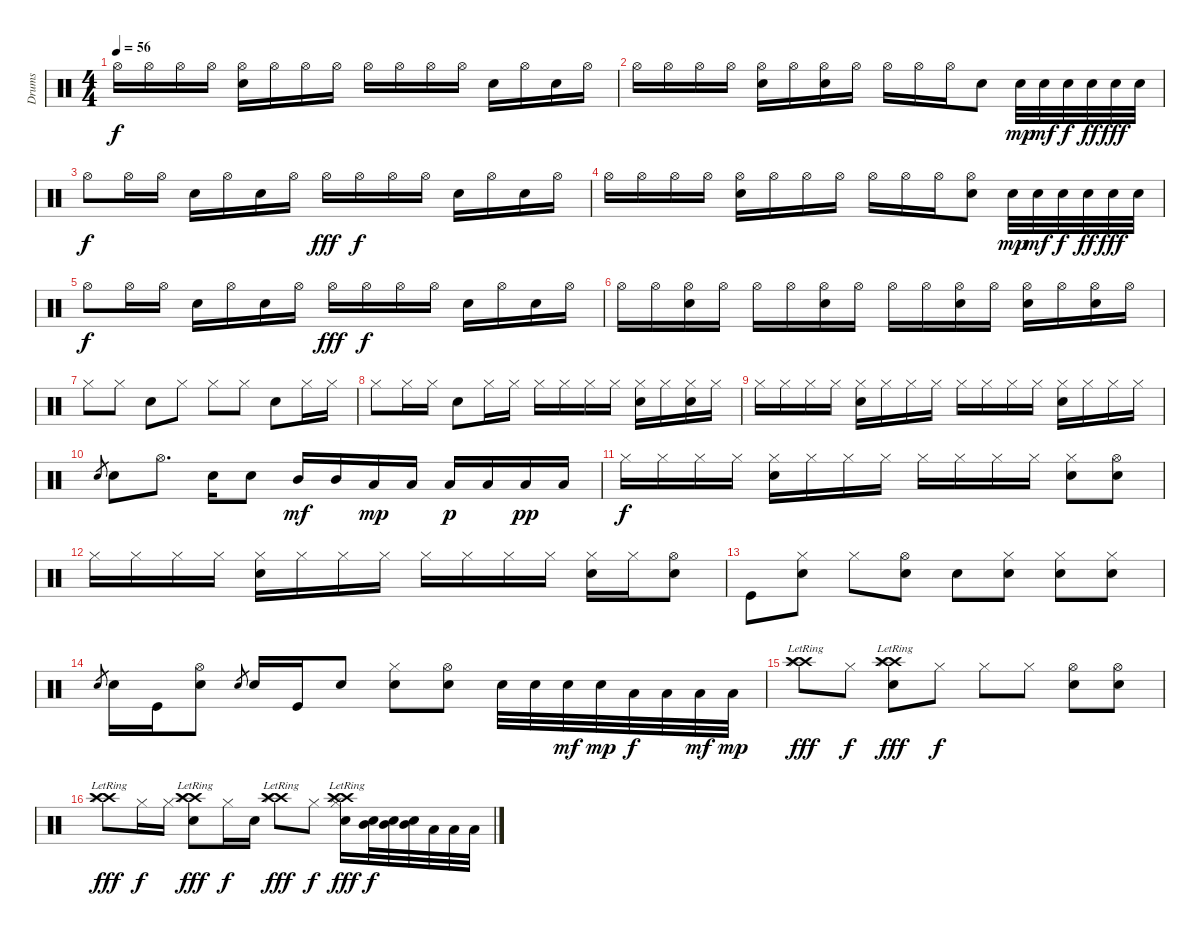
\track ("Drums" "Drums") {instrument percussion}
\staff {score}
\articulation defaults
\ts (4 4)
\tempo 56
\clef neutral
\ks c "Hi-Hat (open)".16{dy f} "Hi-Hat (open)".16 "Hi-Hat (open)".16 "Hi-Hat (open)".16
("Hi-Hat (open)" "Electric Snare (hit)").16 "Hi-Hat (open)".16 "Hi-Hat (open)".16 "Hi-Hat (open)".16 "Hi-Hat (open)".16 "Hi-Hat (open)".16 "Hi-Hat (open)".16 "Hi-Hat (open)".16 "Electric Snare (hit)".16 "Hi-Hat (open)".16 "Electric Snare (hit)".16 "Hi-Hat (open)".16 |
"Hi-Hat (open)".16 "Hi-Hat (open)".16 "Hi-Hat (open)".16 "Hi-Hat (open)".16 ("Hi-Hat (open)" "Electric Snare (hit)").16 "Hi-Hat (open)".16 ("Hi-Hat (open)" "Electric Snare (hit)").16 "Hi-Hat (open)".16 "Hi-Hat (open)".16 "Hi-Hat (open)".16 "Hi-Hat (open)".16 "Electric Snare (hit)".8 "Electric Snare (hit)".32{dy mp} "Electric Snare (hit)".32{dy mf} "Electric Snare (hit)".32{dy f} "Electric Snare (hit)".32{dy ff} "Electric Snare (hit)".32{dy fff} "Electric Snare (hit)".32 |
"Hi-Hat (open)".8{dy f} "Hi-Hat (open)".16 "Hi-Hat (open)".16 "Electric Snare (hit)".16 "Hi-Hat (open)".16 "Electric Snare (hit)".16 "Hi-Hat (open)".16 "Hi-Hat (open)".16{dy fff} "Hi-Hat (open)".16{dy f} "Hi-Hat (open)".16 "Hi-Hat (open)".16 "Electric Snare (hit)".16 "Hi-Hat (open)".16 "Electric Snare (hit)".16 "Hi-Hat (open)".16 |
"Hi-Hat (open)".16 "Hi-Hat (open)".16 "Hi-Hat (open)".16 "Hi-Hat (open)".16 ("Hi-Hat (open)" "Electric Snare (hit)").16 "Hi-Hat (open)".16 "Hi-Hat (open)".16 "Hi-Hat (open)".16 "Hi-Hat (open)".16 "Hi-Hat (open)".16 "Hi-Hat (open)".16 ("Hi-Hat (open)" "Electric Snare (hit)").8 "Electric Snare (hit)".32{dy mp} "Electric Snare (hit)".32{dy mf} "Electric Snare (hit)".32{dy f} "Electric Snare (hit)".32{dy ff} "Electric Snare (hit)".32{dy fff} "Electric Snare (hit)".32 |
"Hi-Hat (open)".8{dy f} "Hi-Hat (open)".16 "Hi-Hat (open)".16 "Electric Snare (hit)".16 "Hi-Hat (open)".16 "Electric Snare (hit)".16 "Hi-Hat (open)".16 "Hi-Hat (open)".16{dy fff} "Hi-Hat (open)".16{dy f} "Hi-Hat (open)".16 "Hi-Hat (open)".16 "Electric Snare (hit)".16 "Hi-Hat (open)".16 "Electric Snare (hit)".16 "Hi-Hat (open)".16 |
"Hi-Hat (open)".16 "Hi-Hat (open)".16 ("Hi-Hat (open)" "Electric Snare (hit)").16 "Hi-Hat (open)".16 "Hi-Hat (open)".16 "Hi-Hat (open)".16 ("Hi-Hat (open)" "Electric Snare (hit)").16 "Hi-Hat (open)".16 "Hi-Hat (open)".16 "Hi-Hat (open)".16 ("Hi-Hat (open)" "Electric Snare (hit)").16 "Hi-Hat (open)".16 ("Hi-Hat (open)" "Electric Snare (hit)").16 "Hi-Hat (open)".16 ("Hi-Hat (open)" "Electric Snare (hit)").16 "Hi-Hat (open)".16 |
"Hi-Hat (closed)".8 "Hi-Hat (closed)".8 "Electric Snare (hit)".8 "Hi-Hat (closed)".8 "Hi-Hat (closed)".8 "Hi-Hat (closed)".8 "Electric Snare (hit)".8 "Hi-Hat (closed)".16 "Hi-Hat (closed)".16 |
"Hi-Hat (closed)".8 "Hi-Hat (closed)".16 "Hi-Hat (closed)".16 "Electric Snare (hit)".8 "Hi-Hat (closed)".16 "Hi-Hat (closed)".16 "Hi-Hat (closed)".16 "Hi-Hat (closed)".16 "Hi-Hat (closed)".16 "Hi-Hat (closed)".16 ("Hi-Hat (closed)" "Electric Snare (hit)").16 "Hi-Hat (closed)".16 ("Hi-Hat (closed)" "Electric Snare (hit)").16 "Hi-Hat (closed)".16 |
"Hi-Hat (closed)".16 "Hi-Hat (closed)".16 "Hi-Hat (closed)".16 "Hi-Hat (closed)".16 ("Hi-Hat (closed)" "Electric Snare (hit)").16 "Hi-Hat (closed)".16 "Hi-Hat (closed)".16 "Hi-Hat (closed)".16 "Hi-Hat (closed)".16 "Hi-Hat (closed)".16 "Hi-Hat (closed)".16 "Hi-Hat (closed)".16 ("Hi-Hat (closed)" "Electric Snare (hit)").16 "Hi-Hat (closed)".16 "Hi-Hat (closed)".16 "Hi-Hat (closed)".16 |
"Electric Snare (hit)".8{gr} "Electric Snare (hit)".8 "Hi-Hat (open)".8{d} "Electric Snare (hit)".16 "Electric Snare (hit)".8 "Mid Tom (hit)".16{dy mf} "Mid Tom (hit)".16 "Low Tom (hit)".16{dy mp} "Low Tom (hit)".16 "Low Tom (hit)".16{dy p} "Low Tom (hit)".16 "Low Tom (hit)".16{dy pp} "Low Tom (hit)".16 |
"Hi-Hat (closed)".16{dy f} "Hi-Hat (closed)".16 "Hi-Hat (closed)".16 "Hi-Hat (closed)".16 ("Hi-Hat (closed)" "Electric Snare (hit)").16 "Hi-Hat (closed)".16 "Hi-Hat (closed)".16 "Hi-Hat (closed)".16 "Hi-Hat (closed)".16 "Hi-Hat (closed)".16 "Hi-Hat (closed)".16 "Hi-Hat (closed)".16 ("Hi-Hat (closed)" "Electric Snare (hit)").8 ("Hi-Hat (open)" "Electric Snare (hit)").8 |
"Hi-Hat (closed)".16 "Hi-Hat (closed)".16 "Hi-Hat (closed)".16 "Hi-Hat (closed)".16 ("Hi-Hat (closed)" "Electric Snare (hit)").16 "Hi-Hat (closed)".16 "Hi-Hat (closed)".16 "Hi-Hat (closed)".16 "Hi-Hat (closed)".16 "Hi-Hat (closed)".16 "Hi-Hat (closed)".16 "Hi-Hat (closed)".16 ("Hi-Hat (closed)" "Electric Snare (hit)").16 "Hi-Hat (closed)".16 ("Hi-Hat (open)" "Electric Snare (hit)").8 |
"Kick (hit)".8 ("Hi-Hat (closed)" "Electric Snare (hit)").8 "Hi-Hat (closed)".8 ("Hi-Hat (open)" "Electric Snare (hit)").8 "Electric Snare (hit)".8 ("Hi-Hat (closed)" "Electric Snare (hit)").8 ("Hi-Hat (closed)" "Electric Snare (hit)").8 ("Hi-Hat (closed)" "Electric Snare (hit)").8 |
"Electric Snare (hit)".8{gr} "Electric Snare (hit)".16 "Kick (hit)".16 ("Hi-Hat (open)" "Electric Snare (hit)").8 "Electric Snare (hit)".8{gr} "Electric Snare (hit)".16 "Kick (hit)".16 "Electric Snare (hit)".8 ("Hi-Hat (closed)" "Electric Snare (hit)").8 ("Hi-Hat (open)" "Electric Snare (hit)").8 "Electric Snare (hit)".32 "Electric Snare (hit)".32 "Electric Snare (hit)".32{dy mf} "Electric Snare (hit)".32{dy mp} "Low Tom (hit)".32{dy f} "Low Tom (hit)".32 "Low Tom (hit)".32{dy mf} "Low Tom (hit)".32{dy mp} |
("Crash high (hit)"{lr} "Crash high (hit)"{lr} "Splash (hit)"{lr}).8{dy fff} "Hi-Hat (closed)".8{dy f} ("Crash high (hit)"{lr} "Crash high (hit)"{lr} "Splash (hit)"{lr} "Electric Snare (hit)").8{dy fff} "Hi-Hat (closed)".8{dy f} "Hi-Hat (closed)".8 "Hi-Hat (closed)".8 ("Hi-Hat (open)" "Electric Snare (hit)").8 ("Hi-Hat (open)" "Electric Snare (hit)").8 |
("Crash high (hit)"{lr} "Crash high (hit)"{lr} "Splash (hit)"{lr}).8{dy fff} "Hi-Hat (closed)".16{dy f} "Hi-Hat (closed)".16 ("Crash high (hit)"{lr} "Crash high (hit)"{lr} "Splash (hit)"{lr} "Electric Snare (hit)").8{dy fff} "Hi-Hat (closed)".16{dy f} "Electric Snare (hit)".16 ("Crash high (hit)"{lr} "Crash high (hit)"{lr} "Splash (hit)"{lr}).8{dy fff} "Hi-Hat (closed)".8{dy f} ("Crash high (hit)"{lr} "Crash high (hit)"{lr} "Splash (hit)"{lr} "Hi-Hat (closed)" "Electric Snare (hit)").16{dy fff} ("Electric Snare (hit)" "Mid Tom (hit)").32{dy f} ("Electric Snare (hit)" "Mid Tom (hit)").32 ("Electric Snare (hit)" "Mid Tom (hit)").32 "Low Tom (hit)".32 "Low Tom (hit)".32 "Low Tom (hit)".32
